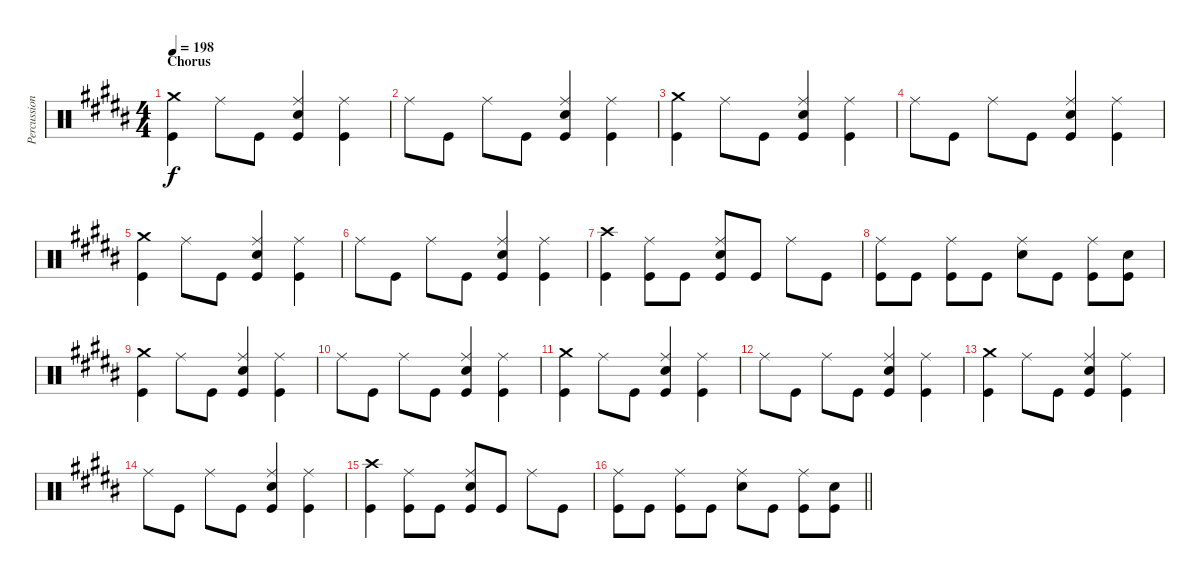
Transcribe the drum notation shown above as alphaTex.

\track ("Percussion" "Percussion") {instrument percussion}
\staff {score}
\articulation defaults
\ts (4 4)
\section ("" "Chorus")
\tempo 198
\clef neutral
\ks b
("Crash medium (hit)" "Kick (hit)").4{dy f} "Ride (middle)".8 "Kick (hit)".8 ("Ride (middle)" "Electric Snare (hit)" "Kick (hit)").4 ("Ride (middle)" "Kick (hit)").4 |
"Ride (middle)".8 "Kick (hit)".8 "Ride (middle)".8 "Kick (hit)".8 ("Ride (middle)" "Electric Snare (hit)" "Kick (hit)").4 ("Ride (middle)" "Kick (hit)").4 |
("Crash medium (hit)" "Kick (hit)").4 "Ride (middle)".8 "Kick (hit)".8 ("Ride (middle)" "Electric Snare (hit)" "Kick (hit)").4 ("Ride (middle)" "Kick (hit)").4 |
"Ride (middle)".8 "Kick (hit)".8 "Ride (middle)".8 "Kick (hit)".8 ("Ride (middle)" "Electric Snare (hit)" "Kick (hit)").4 ("Ride (middle)" "Kick (hit)").4 |
("Crash medium (hit)" "Kick (hit)").4 "Ride (middle)".8 "Kick (hit)".8 ("Ride (middle)" "Electric Snare (hit)" "Kick (hit)").4 ("Ride (middle)" "Kick (hit)").4 |
"Ride (middle)".8 "Kick (hit)".8 "Ride (middle)".8 "Kick (hit)".8 ("Ride (middle)" "Electric Snare (hit)" "Kick (hit)").4 ("Ride (middle)" "Kick (hit)").4 |
("Crash high (hit)" "Kick (hit)").4 ("Ride (middle)" "Kick (hit)").8 "Kick (hit)".8 ("Ride (middle)" "Electric Snare (hit)" "Kick (hit)").8 "Kick (hit)".8 "Ride (middle)".8 "Kick (hit)".8 |
("Ride (middle)" "Kick (hit)").8 "Kick (hit)".8 ("Ride (middle)" "Kick (hit)").8 "Kick (hit)".8 ("Ride (middle)" "Electric Snare (hit)").8 "Kick (hit)".8 ("Ride (middle)" "Kick (hit)").8 ("Electric Snare (hit)" "Kick (hit)").8 |
("Crash medium (hit)" "Kick (hit)").4 "Ride (middle)".8 "Kick (hit)".8 ("Ride (middle)" "Electric Snare (hit)" "Kick (hit)").4 ("Ride (middle)" "Kick (hit)").4 |
"Ride (middle)".8 "Kick (hit)".8 "Ride (middle)".8 "Kick (hit)".8 ("Ride (middle)" "Electric Snare (hit)" "Kick (hit)").4 ("Ride (middle)" "Kick (hit)").4 |
("Crash medium (hit)" "Kick (hit)").4 "Ride (middle)".8 "Kick (hit)".8 ("Ride (middle)" "Electric Snare (hit)" "Kick (hit)").4 ("Ride (middle)" "Kick (hit)").4 |
"Ride (middle)".8 "Kick (hit)".8 "Ride (middle)".8 "Kick (hit)".8 ("Ride (middle)" "Electric Snare (hit)" "Kick (hit)").4 ("Ride (middle)" "Kick (hit)").4 |
("Crash medium (hit)" "Kick (hit)").4 "Ride (middle)".8 "Kick (hit)".8 ("Ride (middle)" "Electric Snare (hit)" "Kick (hit)").4 ("Ride (middle)" "Kick (hit)").4 |
"Ride (middle)".8 "Kick (hit)".8 "Ride (middle)".8 "Kick (hit)".8 ("Ride (middle)" "Electric Snare (hit)" "Kick (hit)").4 ("Ride (middle)" "Kick (hit)").4 |
("Crash high (hit)" "Kick (hit)").4 ("Ride (middle)" "Kick (hit)").8 "Kick (hit)".8 ("Ride (middle)" "Electric Snare (hit)" "Kick (hit)").8 "Kick (hit)".8 "Ride (middle)".8 "Kick (hit)".8 |
\barLineRight lightlight
("Ride (middle)" "Kick (hit)").8 "Kick (hit)".8 ("Ride (middle)" "Kick (hit)").8 "Kick (hit)".8 ("Ride (middle)" "Electric Snare (hit)").8 "Kick (hit)".8 ("Ride (middle)" "Kick (hit)").8 ("Electric Snare (hit)" "Kick (hit)").8
